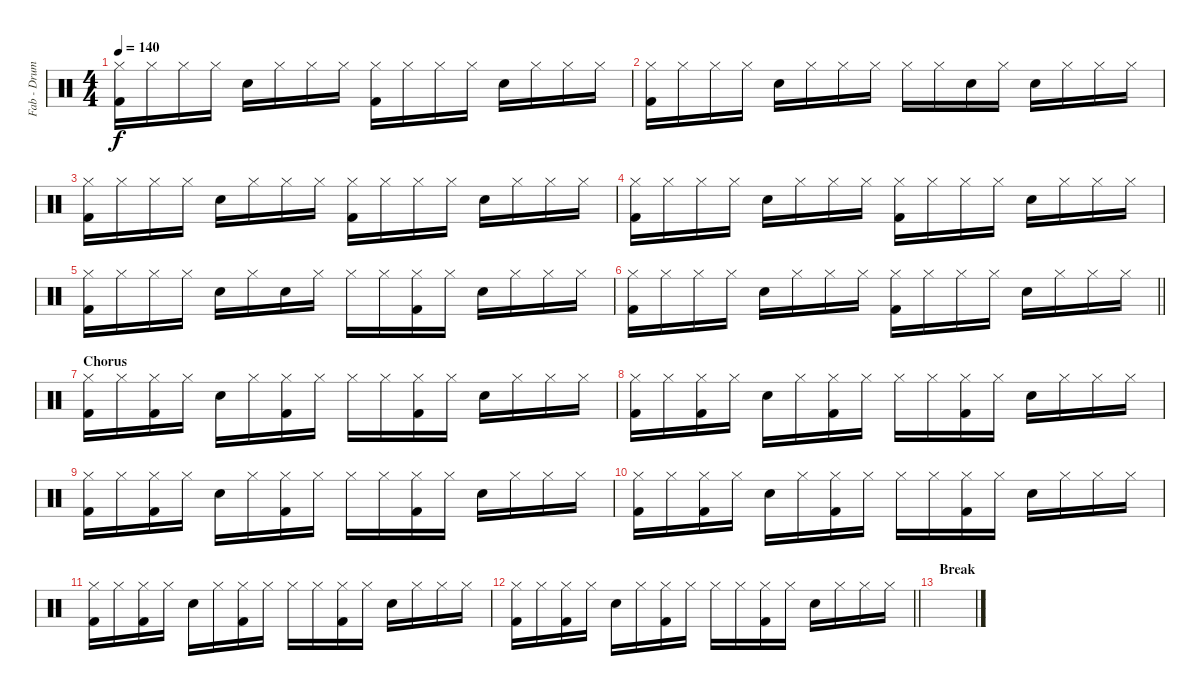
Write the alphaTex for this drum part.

\track ("Fab - Drums MIDI" "Fab - Drum") {instrument percussion}
\staff {score}
\articulation defaults
\ts (4 4)
\tempo 140
\clef neutral
\ks c
("Hi-Hat (closed)" "Kick (hit) 2").16{dy f} "Hi-Hat (closed)".16 "Hi-Hat (closed)".16 "Hi-Hat (closed)".16 "Snare (hit) 2".16 "Hi-Hat (closed)".16 "Hi-Hat (closed)".16 "Hi-Hat (closed)".16 ("Hi-Hat (closed)" "Kick (hit) 2").16 "Hi-Hat (closed)".16 "Hi-Hat (closed)".16 "Hi-Hat (closed)".16 "Snare (hit) 2".16 "Hi-Hat (closed)".16 "Hi-Hat (closed)".16 "Hi-Hat (closed)".16 |
("Hi-Hat (closed)" "Kick (hit) 2").16 "Hi-Hat (closed)".16 "Hi-Hat (closed)".16 "Hi-Hat (closed)".16 "Snare (hit) 2".16 "Hi-Hat (closed)".16 "Hi-Hat (closed)".16 "Hi-Hat (closed)".16 "Hi-Hat (closed)".16 "Hi-Hat (closed)".16 "Snare (hit) 2".16 "Hi-Hat (closed)".16 "Snare (hit) 2".16 "Hi-Hat (closed)".16 "Hi-Hat (closed)".16 "Hi-Hat (closed)".16 |
("Hi-Hat (closed)" "Kick (hit) 2").16 "Hi-Hat (closed)".16 "Hi-Hat (closed)".16 "Hi-Hat (closed)".16 "Snare (hit) 2".16 "Hi-Hat (closed)".16 "Hi-Hat (closed)".16 "Hi-Hat (closed)".16 ("Hi-Hat (closed)" "Kick (hit) 2").16 "Hi-Hat (closed)".16 "Hi-Hat (closed)".16 "Hi-Hat (closed)".16 "Snare (hit) 2".16 "Hi-Hat (closed)".16 "Hi-Hat (closed)".16 "Hi-Hat (closed)".16 |
("Hi-Hat (closed)" "Kick (hit) 2").16 "Hi-Hat (closed)".16 "Hi-Hat (closed)".16 "Hi-Hat (closed)".16 "Snare (hit) 2".16 "Hi-Hat (closed)".16 "Hi-Hat (closed)".16 "Hi-Hat (closed)".16 ("Hi-Hat (closed)" "Kick (hit) 2").16 "Hi-Hat (closed)".16 "Hi-Hat (closed)".16 "Hi-Hat (closed)".16 "Snare (hit) 2".16 "Hi-Hat (closed)".16 "Hi-Hat (closed)".16 "Hi-Hat (closed)".16 |
("Hi-Hat (closed)" "Kick (hit) 2").16 "Hi-Hat (closed)".16 "Hi-Hat (closed)".16 "Hi-Hat (closed)".16 "Snare (hit) 2".16 "Hi-Hat (closed)".16 "Snare (hit) 2".16 "Hi-Hat (closed)".16 "Hi-Hat (closed)".16 "Hi-Hat (closed)".16 ("Hi-Hat (closed)" "Kick (hit) 2").16 "Hi-Hat (closed)".16 "Snare (hit) 2".16 "Hi-Hat (closed)".16 "Hi-Hat (closed)".16 "Hi-Hat (closed)".16 |
\barLineRight lightlight
("Hi-Hat (closed)" "Kick (hit) 2").16 "Hi-Hat (closed)".16 "Hi-Hat (closed)".16 "Hi-Hat (closed)".16 "Snare (hit) 2".16 "Hi-Hat (closed)".16 "Hi-Hat (closed)".16 "Hi-Hat (closed)".16 ("Hi-Hat (closed)" "Kick (hit) 2").16 "Hi-Hat (closed)".16 "Hi-Hat (closed)".16 "Hi-Hat (closed)".16 "Snare (hit) 2".16 "Hi-Hat (closed)".16 "Hi-Hat (closed)".16 "Hi-Hat (closed)".16 |
\section ("" "Chorus")
("Hi-Hat (closed)" "Kick (hit) 2").16 "Hi-Hat (closed)".16 ("Hi-Hat (closed)" "Kick (hit) 2").16 "Hi-Hat (closed)".16 "Snare (hit) 2".16 "Hi-Hat (closed)".16 ("Hi-Hat (closed)" "Kick (hit) 2").16 "Hi-Hat (closed)".16 "Hi-Hat (closed)".16 "Hi-Hat (closed)".16 ("Hi-Hat (closed)" "Kick (hit) 2").16 "Hi-Hat (closed)".16 "Snare (hit) 2".16 "Hi-Hat (closed)".16 "Hi-Hat (closed)".16 "Hi-Hat (closed)".16 |
("Hi-Hat (closed)" "Kick (hit) 2").16 "Hi-Hat (closed)".16 ("Hi-Hat (closed)" "Kick (hit) 2").16 "Hi-Hat (closed)".16 "Snare (hit) 2".16 "Hi-Hat (closed)".16 ("Hi-Hat (closed)" "Kick (hit) 2").16 "Hi-Hat (closed)".16 "Hi-Hat (closed)".16 "Hi-Hat (closed)".16 ("Hi-Hat (closed)" "Kick (hit) 2").16 "Hi-Hat (closed)".16 "Snare (hit) 2".16 "Hi-Hat (closed)".16 "Hi-Hat (closed)".16 "Hi-Hat (closed)".16 |
("Hi-Hat (closed)" "Kick (hit) 2").16 "Hi-Hat (closed)".16 ("Hi-Hat (closed)" "Kick (hit) 2").16 "Hi-Hat (closed)".16 "Snare (hit) 2".16 "Hi-Hat (closed)".16 ("Hi-Hat (closed)" "Kick (hit) 2").16 "Hi-Hat (closed)".16 "Hi-Hat (closed)".16 "Hi-Hat (closed)".16 ("Hi-Hat (closed)" "Kick (hit) 2").16 "Hi-Hat (closed)".16 "Snare (hit) 2".16 "Hi-Hat (closed)".16 "Hi-Hat (closed)".16 "Hi-Hat (closed)".16 |
("Hi-Hat (closed)" "Kick (hit) 2").16 "Hi-Hat (closed)".16 ("Hi-Hat (closed)" "Kick (hit) 2").16 "Hi-Hat (closed)".16 "Snare (hit) 2".16 "Hi-Hat (closed)".16 ("Hi-Hat (closed)" "Kick (hit) 2").16 "Hi-Hat (closed)".16 "Hi-Hat (closed)".16 "Hi-Hat (closed)".16 ("Hi-Hat (closed)" "Kick (hit) 2").16 "Hi-Hat (closed)".16 "Snare (hit) 2".16 "Hi-Hat (closed)".16 "Hi-Hat (closed)".16 "Hi-Hat (closed)".16 |
("Hi-Hat (closed)" "Kick (hit) 2").16 "Hi-Hat (closed)".16 ("Hi-Hat (closed)" "Kick (hit) 2").16 "Hi-Hat (closed)".16 "Snare (hit) 2".16 "Hi-Hat (closed)".16 ("Hi-Hat (closed)" "Kick (hit) 2").16 "Hi-Hat (closed)".16 "Hi-Hat (closed)".16 "Hi-Hat (closed)".16 ("Hi-Hat (closed)" "Kick (hit) 2").16 "Hi-Hat (closed)".16 "Snare (hit) 2".16 "Hi-Hat (closed)".16 "Hi-Hat (closed)".16 "Hi-Hat (closed)".16 |
\barLineRight lightlight
("Hi-Hat (closed)" "Kick (hit) 2").16 "Hi-Hat (closed)".16 ("Hi-Hat (closed)" "Kick (hit) 2").16 "Hi-Hat (closed)".16 "Snare (hit) 2".16 "Hi-Hat (closed)".16 ("Hi-Hat (closed)" "Kick (hit) 2").16 "Hi-Hat (closed)".16 "Hi-Hat (closed)".16 "Hi-Hat (closed)".16 ("Hi-Hat (closed)" "Kick (hit) 2").16 "Hi-Hat (closed)".16 "Snare (hit) 2".16 "Hi-Hat (closed)".16 "Hi-Hat (closed)".16 "Hi-Hat (closed)".16 |
\section ("" "Break")
